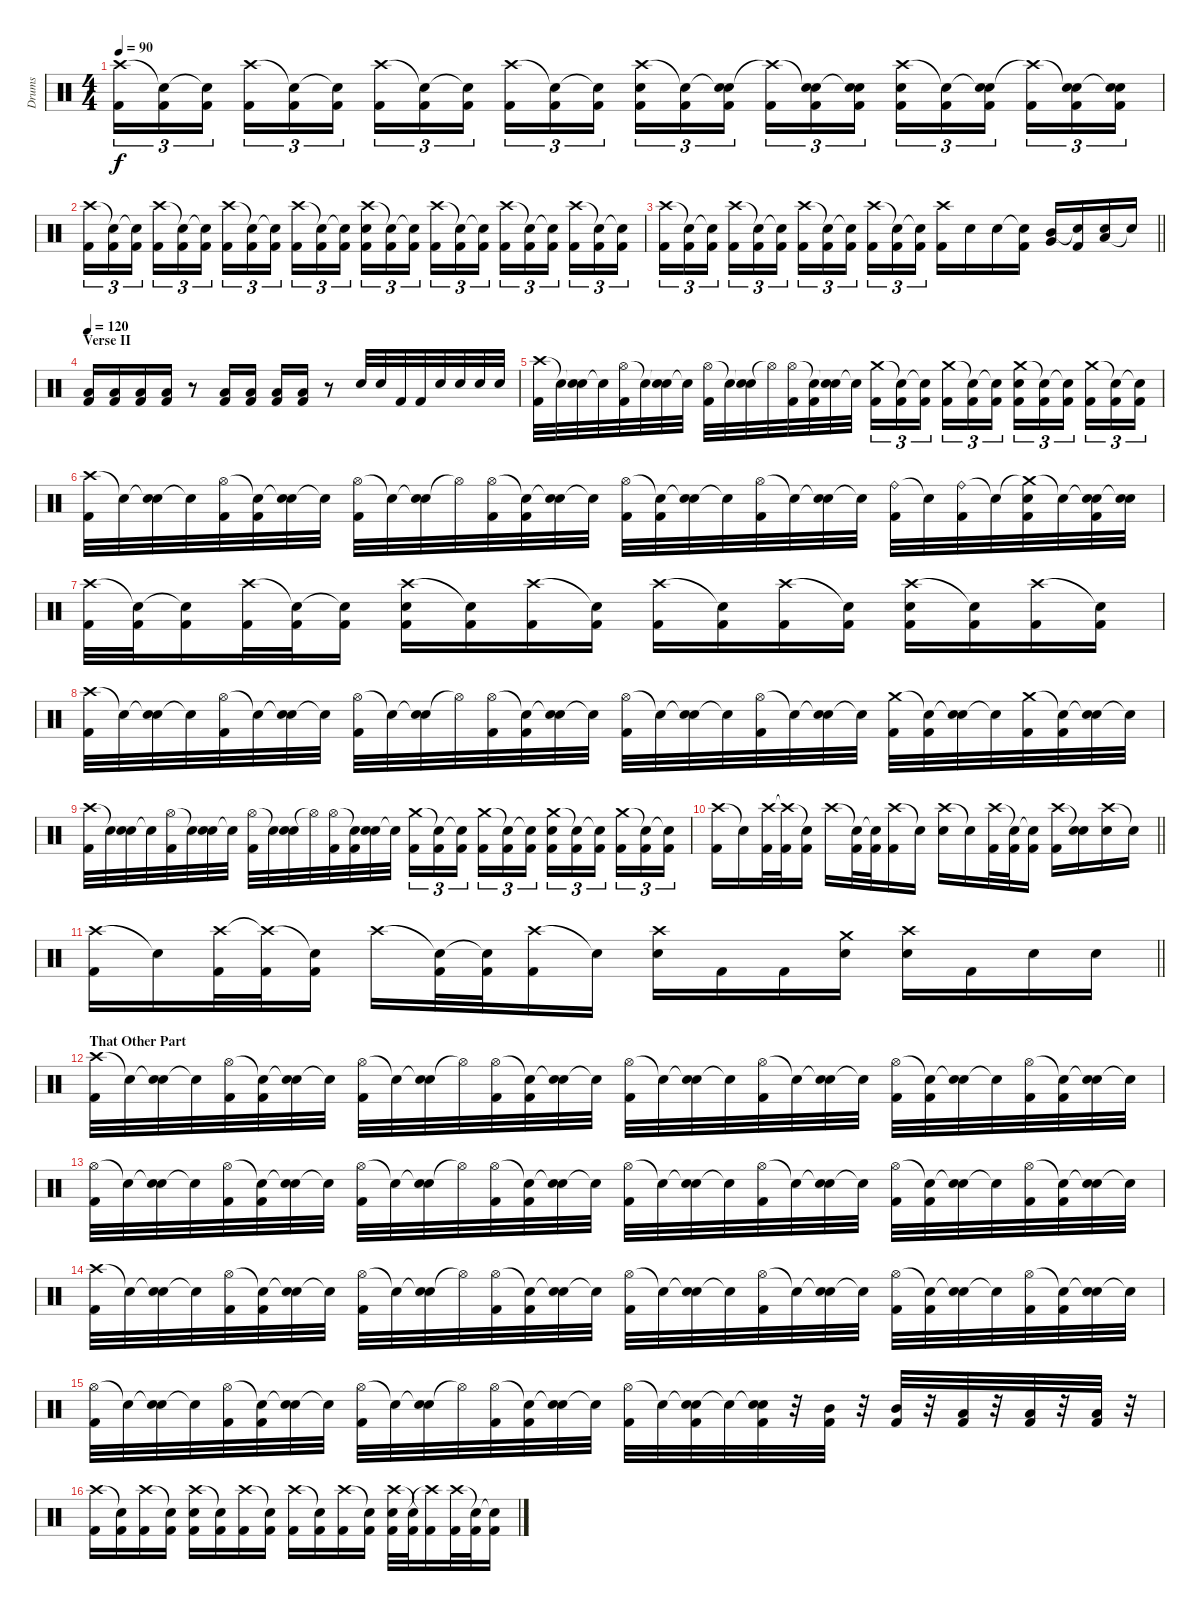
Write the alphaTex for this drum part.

\track ("Drums" "Drums") {instrument percussion}
\staff {score}
\articulation defaults
\ts (4 4)
\tempo 90
\clef neutral
\ks c
("Crash high (hit)" "Kick (hit) 2").16{tu (3 2) dy f} ("Snare (hit)"{t} "Kick (hit) 2").16{tu (3 2)} ("Snare (hit)"{t} "Kick (hit) 2").16{tu (3 2) beam splitsecondary} ("Crash high (hit)" "Kick (hit) 2").16{tu (3 2)} ("Snare (hit)"{t} "Kick (hit) 2").16{tu (3 2)} ("Snare (hit)"{t} "Kick (hit) 2").16{tu (3 2)} ("Crash high (hit)" "Kick (hit) 2").16{tu (3 2)} ("Snare (hit)"{t} "Kick (hit) 2").16{tu (3 2)} ("Snare (hit)"{t} "Kick (hit) 2").16{tu (3 2) beam splitsecondary} ("Crash high (hit)" "Kick (hit) 2").16{tu (3 2)} ("Snare (hit)"{t} "Kick (hit) 2").16{tu (3 2)} ("Snare (hit)"{t} "Kick (hit) 2").16{tu (3 2)} ("Crash high (hit)" "Electric Snare (hit)" "Kick (hit) 2").16{tu (3 2)} ("Snare (hit)"{t} "Kick (hit) 2").16{tu (3 2)} ("Snare (hit)"{t} "Electric Snare (hit)" "Kick (hit) 2").16{tu (3 2) beam splitsecondary} ("Crash high (hit)"{t} "Kick (hit) 2").16{tu (3 2)} ("Snare (hit)"{t} "Electric Snare (hit)" "Kick (hit) 2").16{tu (3 2)} ("Snare (hit)"{t} "Electric Snare (hit)" "Kick (hit) 2").16{tu (3 2)} ("Crash high (hit)" "Electric Snare (hit)" "Kick (hit) 2").16{tu (3 2)} ("Snare (hit)"{t} "Kick (hit) 2").16{tu (3 2)} ("Snare (hit)"{t} "Electric Snare (hit)" "Kick (hit) 2").16{tu (3 2) beam splitsecondary} ("Crash high (hit)"{t} "Kick (hit) 2").16{tu (3 2)} ("Snare (hit)"{t} "Electric Snare (hit)" "Kick (hit) 2").16{tu (3 2)} ("Snare (hit)"{t} "Electric Snare (hit)" "Kick (hit) 2").16{tu (3 2)} |
("Crash high (hit)" "Kick (hit) 2").16{tu (3 2)} ("Snare (hit)"{t} "Kick (hit) 2").16{tu (3 2)} ("Snare (hit)"{t} "Kick (hit) 2").16{tu (3 2) beam splitsecondary} ("Crash high (hit)" "Kick (hit) 2").16{tu (3 2)} ("Snare (hit)"{t} "Kick (hit) 2").16{tu (3 2)} ("Snare (hit)"{t} "Kick (hit) 2").16{tu (3 2)} ("Crash high (hit)" "Kick (hit) 2").16{tu (3 2)} ("Snare (hit)"{t} "Kick (hit) 2").16{tu (3 2)} ("Snare (hit)"{t} "Kick (hit) 2").16{tu (3 2) beam splitsecondary} ("Crash high (hit)" "Kick (hit) 2").16{tu (3 2)} ("Snare (hit)"{t} "Kick (hit) 2").16{tu (3 2)} ("Snare (hit)"{t} "Kick (hit) 2").16{tu (3 2)} ("Crash high (hit)" "Electric Snare (hit)" "Kick (hit) 2").16{tu (3 2)} ("Snare (hit)"{t} "Kick (hit) 2").16{tu (3 2)} ("Snare (hit)"{t} "Kick (hit) 2").16{tu (3 2) beam splitsecondary} ("Crash high (hit)" "Kick (hit) 2").16{tu (3 2)} ("Snare (hit)"{t} "Kick (hit) 2").16{tu (3 2)} ("Snare (hit)"{t} "Kick (hit) 2").16{tu (3 2)} ("Crash high (hit)" "Kick (hit) 2").16{tu (3 2)} ("Snare (hit)"{t} "Kick (hit) 2").16{tu (3 2)} ("Snare (hit)"{t} "Kick (hit) 2").16{tu (3 2) beam splitsecondary} ("Crash high (hit)" "Kick (hit) 2").16{tu (3 2)} ("Snare (hit)"{t} "Kick (hit) 2").16{tu (3 2)} ("Snare (hit)"{t} "Kick (hit) 2").16{tu (3 2)} |
\barLineRight lightlight
("Crash high (hit)" "Kick (hit) 2").16{tu (3 2)} ("Snare (hit)"{t} "Kick (hit) 2").16{tu (3 2)} ("Snare (hit)"{t} "Kick (hit) 2").16{tu (3 2) beam splitsecondary} ("Crash high (hit)" "Kick (hit) 2").16{tu (3 2)} ("Snare (hit)"{t} "Kick (hit) 2").16{tu (3 2)} ("Snare (hit)"{t} "Kick (hit) 2").16{tu (3 2)} ("Crash high (hit)" "Kick (hit) 2").16{tu (3 2)} ("Snare (hit)"{t} "Kick (hit) 2").16{tu (3 2)} ("Snare (hit)"{t} "Kick (hit) 2").16{tu (3 2) beam splitsecondary} ("Crash high (hit)" "Kick (hit) 2").16{tu (3 2)} ("Snare (hit)"{t} "Kick (hit) 2").16{tu (3 2)} ("Snare (hit)"{t} "Kick (hit) 2").16{tu (3 2)} ("Crash high (hit)" "Kick (hit) 2").16 "Electric Snare (hit)".16 "Electric Snare (hit)".16 ("Snare (hit)"{t} "Kick (hit) 2").16 ("Mid Tom (hit)" "Very Low Tom (hit)").16 ("Snare (hit)"{t} "Kick (hit) 2").16 ("Low Floor Tom (hit)" "Electric Snare (hit)").16 "Snare (hit)"{t}.16 |
\section ("" "Verse II")
\tempo 120
("Low Floor Tom (hit)" "Kick (hit) 2").16 ("Low Floor Tom (hit)" "Kick (hit) 2").16 ("Low Floor Tom (hit)" "Kick (hit) 2").16 ("Low Floor Tom (hit)" "Kick (hit) 2").16 r.8 ("Low Floor Tom (hit)" "Kick (hit) 2").16 ("Low Floor Tom (hit)" "Kick (hit) 2").16 ("Low Floor Tom (hit)" "Kick (hit) 2").16 ("Low Floor Tom (hit)" "Kick (hit) 2").16 r.8 "Electric Snare (hit)".32 "Electric Snare (hit)".32 "Kick (hit) 2".32 "Kick (hit) 2".32 "Electric Snare (hit)".32 "Electric Snare (hit)".32 "Electric Snare (hit)".32 "Electric Snare (hit)".32 |
("Crash high (hit)" "Kick (hit) 2").32 "Snare (hit)"{t}.32 ("Snare (hit)"{t} "Electric Snare (hit)").32 "Snare (hit)"{t}.32 ("Hi-Hat (open)" "Kick (hit) 2").32 "Snare (hit)"{t}.32 ("Snare (hit)"{t} "Electric Snare (hit)").32 "Snare (hit)"{t}.32 ("Hi-Hat (open)" "Kick (hit) 2").32 "Snare (hit)"{t}.32 ("Snare (hit)"{t} "Electric Snare (hit)").32 "Hi-Hat (open)"{t}.32 ("Hi-Hat (open)" "Kick (hit) 2").32 ("Snare (hit)"{t} "Kick (hit) 2").32 ("Snare (hit)"{t} "Electric Snare (hit)").32 "Snare (hit)"{t}.32 ("Crash medium (hit)" "Kick (hit) 2").16{tu (3 2)} ("Snare (hit)"{t} "Kick (hit) 2").16{tu (3 2)} ("Snare (hit)"{t} "Kick (hit) 2").16{tu (3 2) beam splitsecondary} ("Crash medium (hit)" "Kick (hit) 2").16{tu (3 2)} ("Snare (hit)"{t} "Kick (hit) 2").16{tu (3 2)} ("Snare (hit)"{t} "Kick (hit) 2").16{tu (3 2)} ("Crash medium (hit)" "Electric Snare (hit)" "Kick (hit) 2").16{tu (3 2)} ("Snare (hit)"{t} "Kick (hit) 2").16{tu (3 2)} ("Snare (hit)"{t} "Kick (hit) 2").16{tu (3 2) beam splitsecondary} ("Crash medium (hit)" "Kick (hit) 2").16{tu (3 2)} ("Snare (hit)"{t} "Kick (hit) 2").16{tu (3 2)} ("Snare (hit)"{t} "Kick (hit) 2").16{tu (3 2)} |
("Crash high (hit)" "Kick (hit) 2").32 "Snare (hit)"{t}.32 ("Snare (hit)"{t} "Electric Snare (hit)").32 "Snare (hit)"{t}.32 ("Hi-Hat (open)" "Kick (hit) 2").32 ("Snare (hit)"{t} "Kick (hit) 2").32 ("Snare (hit)"{t} "Electric Snare (hit)").32 "Snare (hit)"{t}.32 ("Hi-Hat (open)" "Kick (hit) 2").32 "Snare (hit)"{t}.32 ("Snare (hit)"{t} "Electric Snare (hit)").32 "Hi-Hat (open)"{t}.32 ("Hi-Hat (open)" "Kick (hit) 2").32 ("Snare (hit)"{t} "Kick (hit) 2").32 ("Snare (hit)"{t} "Electric Snare (hit)").32 "Snare (hit)"{t}.32 ("Hi-Hat (open)" "Kick (hit) 2").32 ("Snare (hit)"{t} "Kick (hit) 2").32 ("Snare (hit)"{t} "Electric Snare (hit)").32 "Snare (hit)"{t}.32 ("Hi-Hat (open)" "Kick (hit) 2").32 "Snare (hit)"{t}.32 ("Snare (hit)"{t} "Electric Snare (hit)").32 "Snare (hit)"{t}.32 ("Ride (bell)" "Kick (hit) 2").32 "Snare (hit)"{t}.32 ("Ride (bell)" "Kick (hit) 2").32 "Snare (hit)"{t}.32 ("Crash medium (hit)"{t} "Electric Snare (hit)" "Kick (hit) 2").32 "Snare (hit)"{t}.32 ("Snare (hit)"{t} "Electric Snare (hit)" "Kick (hit) 2").32 ("Snare (hit)"{t} "Electric Snare (hit)").32 |
("Crash high (hit)" "Kick (hit) 2").32 ("Snare (hit)"{t} "Kick (hit) 2").32 ("Snare (hit)"{t} "Kick (hit) 2").16 ("Crash high (hit)" "Kick (hit) 2").32 ("Snare (hit)"{t} "Kick (hit) 2").32 ("Snare (hit)"{t} "Kick (hit) 2").16 ("Crash high (hit)" "Electric Snare (hit)" "Kick (hit) 2").16 ("Snare (hit)"{t} "Kick (hit) 2").16 ("Crash high (hit)" "Kick (hit) 2").16 ("Snare (hit)"{t} "Kick (hit) 2").16 ("Crash high (hit)" "Kick (hit) 2").16 ("Snare (hit)"{t} "Kick (hit) 2").16 ("Crash high (hit)" "Kick (hit) 2").16 ("Snare (hit)"{t} "Kick (hit) 2").16 ("Crash high (hit)" "Electric Snare (hit)" "Kick (hit) 2").16 ("Snare (hit)"{t} "Kick (hit) 2").16 ("Crash high (hit)" "Kick (hit) 2").16 ("Snare (hit)"{t} "Kick (hit) 2").16 |
("Crash high (hit)" "Kick (hit) 2").32 "Snare (hit)"{t}.32 ("Snare (hit)"{t} "Electric Snare (hit)").32 "Snare (hit)"{t}.32 ("Hi-Hat (open)" "Kick (hit) 2").32 "Snare (hit)"{t}.32 ("Snare (hit)"{t} "Electric Snare (hit)").32 "Snare (hit)"{t}.32 ("Hi-Hat (open)" "Kick (hit) 2").32 "Snare (hit)"{t}.32 ("Snare (hit)"{t} "Electric Snare (hit)").32 "Hi-Hat (open)"{t}.32 ("Hi-Hat (open)" "Kick (hit) 2").32 ("Snare (hit)"{t} "Kick (hit) 2").32 ("Snare (hit)"{t} "Electric Snare (hit)").32 "Snare (hit)"{t}.32 ("Hi-Hat (open)" "Kick (hit) 2").32 "Snare (hit)"{t}.32 ("Snare (hit)"{t} "Electric Snare (hit)").32 "Snare (hit)"{t}.32 ("Hi-Hat (open)" "Kick (hit) 2").32 "Snare (hit)"{t}.32 ("Snare (hit)"{t} "Electric Snare (hit)").32 "Snare (hit)"{t}.32 ("Crash medium (hit)" "Kick (hit) 2").32 ("Snare (hit)"{t} "Kick (hit) 2").32 ("Snare (hit)"{t} "Electric Snare (hit)").32 "Snare (hit)"{t}.32 ("Crash medium (hit)" "Kick (hit) 2").32 ("Snare (hit)"{t} "Kick (hit) 2").32 ("Snare (hit)"{t} "Electric Snare (hit)").32 "Snare (hit)"{t}.32 |
("Crash high (hit)" "Kick (hit) 2").32 "Snare (hit)"{t}.32 ("Snare (hit)"{t} "Electric Snare (hit)").32 "Snare (hit)"{t}.32 ("Hi-Hat (open)" "Kick (hit) 2").32 "Snare (hit)"{t}.32 ("Snare (hit)"{t} "Electric Snare (hit)").32 "Snare (hit)"{t}.32 ("Hi-Hat (open)" "Kick (hit) 2").32 "Snare (hit)"{t}.32 ("Snare (hit)"{t} "Electric Snare (hit)").32 "Hi-Hat (open)"{t}.32 ("Hi-Hat (open)" "Kick (hit) 2").32 ("Snare (hit)"{t} "Kick (hit) 2").32 ("Snare (hit)"{t} "Electric Snare (hit)").32 "Snare (hit)"{t}.32 ("Crash medium (hit)" "Kick (hit) 2").16{tu (3 2)} ("Snare (hit)"{t} "Kick (hit) 2").16{tu (3 2)} ("Snare (hit)"{t} "Kick (hit) 2").16{tu (3 2) beam splitsecondary} ("Crash medium (hit)" "Kick (hit) 2").16{tu (3 2)} ("Snare (hit)"{t} "Kick (hit) 2").16{tu (3 2)} ("Snare (hit)"{t} "Kick (hit) 2").16{tu (3 2)} ("Crash medium (hit)" "Electric Snare (hit)" "Kick (hit) 2").16{tu (3 2)} ("Snare (hit)"{t} "Kick (hit) 2").16{tu (3 2)} ("Snare (hit)"{t} "Kick (hit) 2").16{tu (3 2) beam splitsecondary} ("Crash medium (hit)" "Kick (hit) 2").16{tu (3 2)} ("Snare (hit)"{t} "Kick (hit) 2").16{tu (3 2)} ("Snare (hit)"{t} "Kick (hit) 2").16{tu (3 2)} |
\barLineRight lightlight
("Crash high (hit)" "Kick (hit) 2").16 "Snare (hit)"{t}.16 ("Crash high (hit)" "Kick (hit) 2").32 ("Crash high (hit)"{t} "Kick (hit) 2").32 ("Snare (hit)"{t} "Kick (hit) 2").16 "Crash high (hit)".16 ("Snare (hit)"{t} "Kick (hit) 2").32 ("Snare (hit)"{t} "Kick (hit) 2").32 ("Crash high (hit)" "Kick (hit) 2").16 "Snare (hit)"{t}.16 ("Crash high (hit)" "Electric Snare (hit)").16 "Snare (hit)"{t}.16 ("Crash high (hit)" "Kick (hit) 2").32 ("Snare (hit)"{t} "Kick (hit) 2").32 ("Snare (hit)"{t} "Kick (hit) 2").16 ("Crash high (hit)" "Kick (hit) 2").16 ("Snare (hit)"{t} "Electric Snare (hit)").16 ("Crash high (hit)" "Electric Snare (hit)").16 "Snare (hit)"{t}.16 |
\barLineRight lightlight
("Crash high (hit)" "Kick (hit) 2").16 "Snare (hit)"{t}.16 ("Crash high (hit)" "Kick (hit) 2").32 ("Crash high (hit)"{t} "Kick (hit) 2").32 ("Snare (hit)"{t} "Kick (hit) 2").16 "Crash high (hit)".16 ("Snare (hit)"{t} "Kick (hit) 2").32 ("Snare (hit)"{t} "Kick (hit) 2").32 ("Crash high (hit)" "Kick (hit) 2").16 "Snare (hit)"{t}.16 ("Crash high (hit)" "Electric Snare (hit)").16 "Kick (hit) 2".16 "Kick (hit) 2".16 ("Crash medium (hit)" "Electric Snare (hit)").16 ("Crash high (hit)" "Electric Snare (hit)").16 "Kick (hit) 2".16 "Electric Snare (hit)".16 "Electric Snare (hit)".16 |
\section ("" "That Other Part")
("Crash high (hit)" "Kick (hit) 2").32 "Snare (hit)"{t}.32 ("Snare (hit)"{t} "Electric Snare (hit)").32 "Snare (hit)"{t}.32 ("Hi-Hat (open)" "Kick (hit) 2").32 ("Snare (hit)"{t} "Kick (hit) 2").32 ("Snare (hit)"{t} "Electric Snare (hit)").32 "Snare (hit)"{t}.32 ("Hi-Hat (open)" "Kick (hit) 2").32 "Snare (hit)"{t}.32 ("Snare (hit)"{t} "Electric Snare (hit)").32 "Hi-Hat (open)"{t}.32 ("Hi-Hat (open)" "Kick (hit) 2").32 ("Snare (hit)"{t} "Kick (hit) 2").32 ("Snare (hit)"{t} "Electric Snare (hit)").32 "Snare (hit)"{t}.32 ("Hi-Hat (open)" "Kick (hit) 2").32 "Snare (hit)"{t}.32 ("Snare (hit)"{t} "Electric Snare (hit)").32 "Snare (hit)"{t}.32 ("Hi-Hat (open)" "Kick (hit) 2").32 "Snare (hit)"{t}.32 ("Snare (hit)"{t} "Electric Snare (hit)").32 "Snare (hit)"{t}.32 ("Hi-Hat (open)" "Kick (hit) 2").32 ("Snare (hit)"{t} "Kick (hit) 2").32 ("Snare (hit)"{t} "Electric Snare (hit)").32 "Snare (hit)"{t}.32 ("Hi-Hat (open)" "Kick (hit) 2").32 ("Snare (hit)"{t} "Kick (hit) 2").32 ("Snare (hit)"{t} "Electric Snare (hit)").32 "Snare (hit)"{t}.32 |
("Hi-Hat (open)" "Kick (hit) 2").32 "Snare (hit)"{t}.32 ("Snare (hit)"{t} "Electric Snare (hit)").32 "Snare (hit)"{t}.32 ("Hi-Hat (open)" "Kick (hit) 2").32 ("Snare (hit)"{t} "Kick (hit) 2").32 ("Snare (hit)"{t} "Electric Snare (hit)").32 "Snare (hit)"{t}.32 ("Hi-Hat (open)" "Kick (hit) 2").32 "Snare (hit)"{t}.32 ("Snare (hit)"{t} "Electric Snare (hit)").32 "Hi-Hat (open)"{t}.32 ("Hi-Hat (open)" "Kick (hit) 2").32 ("Snare (hit)"{t} "Kick (hit) 2").32 ("Snare (hit)"{t} "Electric Snare (hit)").32 "Snare (hit)"{t}.32 ("Hi-Hat (open)" "Kick (hit) 2").32 "Snare (hit)"{t}.32 ("Snare (hit)"{t} "Electric Snare (hit)").32 "Snare (hit)"{t}.32 ("Hi-Hat (open)" "Kick (hit) 2").32 "Snare (hit)"{t}.32 ("Snare (hit)"{t} "Electric Snare (hit)").32 "Snare (hit)"{t}.32 ("Hi-Hat (open)" "Kick (hit) 2").32 ("Snare (hit)"{t} "Kick (hit) 2").32 ("Snare (hit)"{t} "Electric Snare (hit)").32 "Snare (hit)"{t}.32 ("Hi-Hat (open)" "Kick (hit) 2").32 ("Snare (hit)"{t} "Kick (hit) 2").32 ("Snare (hit)"{t} "Electric Snare (hit)").32 "Snare (hit)"{t}.32 |
("Crash high (hit)" "Kick (hit) 2").32 "Snare (hit)"{t}.32 ("Snare (hit)"{t} "Electric Snare (hit)").32 "Snare (hit)"{t}.32 ("Hi-Hat (open)" "Kick (hit) 2").32 ("Snare (hit)"{t} "Kick (hit) 2").32 ("Snare (hit)"{t} "Electric Snare (hit)").32 "Snare (hit)"{t}.32 ("Hi-Hat (open)" "Kick (hit) 2").32 "Snare (hit)"{t}.32 ("Snare (hit)"{t} "Electric Snare (hit)").32 "Hi-Hat (open)"{t}.32 ("Hi-Hat (open)" "Kick (hit) 2").32 ("Snare (hit)"{t} "Kick (hit) 2").32 ("Snare (hit)"{t} "Electric Snare (hit)").32 "Snare (hit)"{t}.32 ("Hi-Hat (open)" "Kick (hit) 2").32 "Snare (hit)"{t}.32 ("Snare (hit)"{t} "Electric Snare (hit)").32 "Snare (hit)"{t}.32 ("Hi-Hat (open)" "Kick (hit) 2").32 "Snare (hit)"{t}.32 ("Snare (hit)"{t} "Electric Snare (hit)").32 "Snare (hit)"{t}.32 ("Hi-Hat (open)" "Kick (hit) 2").32 ("Snare (hit)"{t} "Kick (hit) 2").32 ("Snare (hit)"{t} "Electric Snare (hit)").32 "Snare (hit)"{t}.32 ("Hi-Hat (open)" "Kick (hit) 2").32 ("Snare (hit)"{t} "Kick (hit) 2").32 ("Snare (hit)"{t} "Electric Snare (hit)").32 "Snare (hit)"{t}.32 |
("Hi-Hat (open)" "Kick (hit) 2").32 "Snare (hit)"{t}.32 ("Snare (hit)"{t} "Electric Snare (hit)").32 "Snare (hit)"{t}.32 ("Hi-Hat (open)" "Kick (hit) 2").32 ("Snare (hit)"{t} "Kick (hit) 2").32 ("Snare (hit)"{t} "Electric Snare (hit)").32 "Snare (hit)"{t}.32 ("Hi-Hat (open)" "Kick (hit) 2").32 "Snare (hit)"{t}.32 ("Snare (hit)"{t} "Electric Snare (hit)").32 "Hi-Hat (open)"{t}.32 ("Hi-Hat (open)" "Kick (hit) 2").32 ("Snare (hit)"{t} "Kick (hit) 2").32 ("Snare (hit)"{t} "Electric Snare (hit)").32 "Snare (hit)"{t}.32 ("Hi-Hat (open)" "Kick (hit) 2").32 "Snare (hit)"{t}.32 ("Snare (hit)"{t} "Electric Snare (hit)" "Kick (hit) 2").32 "Snare (hit)"{t}.32 ("Snare (hit)"{t} "Electric Snare (hit)" "Kick (hit) 2").32 r.32 ("Mid Tom (hit)" "Kick (hit) 2").32 r.32 ("Mid Tom (hit)" "Kick (hit) 2").32 r.32 ("Low Tom (hit)" "Kick (hit) 2").32 r.32 ("Low Tom (hit)" "Kick (hit) 2").32 r.32 ("Low Floor Tom (hit)" "Kick (hit) 2").32 r.32 |
("Crash high (hit)" "Kick (hit) 2").16 ("Snare (hit)"{t} "Kick (hit) 2").16 ("Crash high (hit)" "Kick (hit) 2").16 ("Snare (hit)"{t} "Kick (hit) 2").16 ("Crash high (hit)" "Electric Snare (hit)" "Kick (hit) 2").16 ("Snare (hit)"{t} "Kick (hit) 2").16 ("Crash high (hit)" "Kick (hit) 2").16 ("Snare (hit)"{t} "Kick (hit) 2").16 ("Crash high (hit)" "Kick (hit) 2").16 ("Snare (hit)"{t} "Kick (hit) 2").16 ("Crash high (hit)" "Kick (hit) 2").16 ("Snare (hit)"{t} "Kick (hit) 2").16 ("Crash high (hit)" "Electric Snare (hit)" "Kick (hit) 2").32 ("Snare (hit)"{t} "Kick (hit) 2").32 ("Crash high (hit)"{t} "Kick (hit) 2").16 ("Crash high (hit)" "Kick (hit) 2").32 ("Snare (hit)"{t} "Kick (hit) 2").32 ("Snare (hit)"{t} "Kick (hit) 2").16
